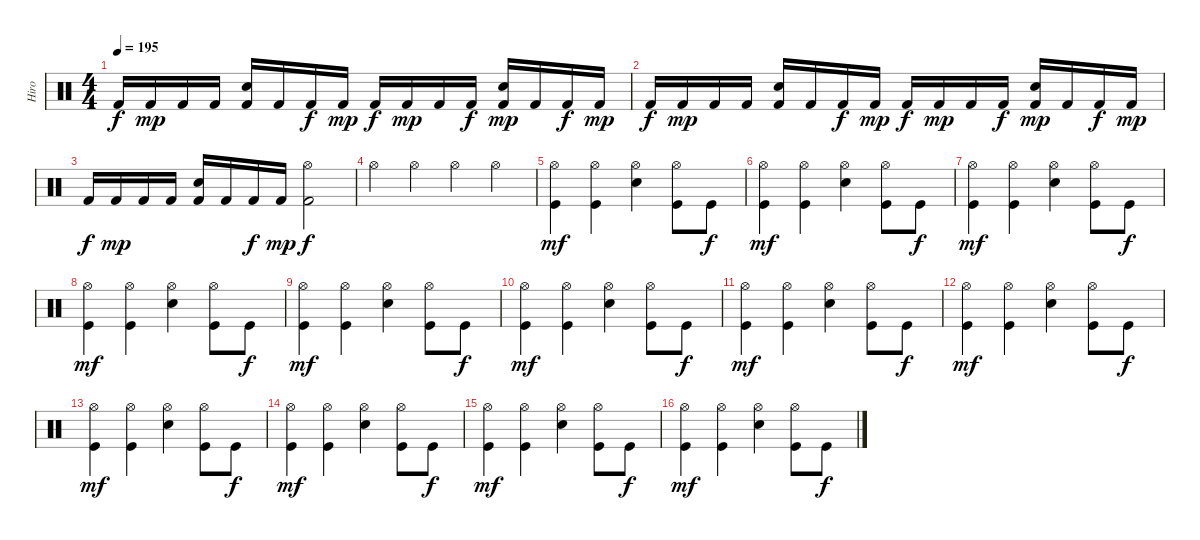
\track ("Hiro" "Hiro") {instrument percussion}
\staff {score}
\articulation defaults
\ts (4 4)
\tempo 195
\clef neutral
\ks c "Kick (hit) 2".16{dy f} "Kick (hit) 2".16{dy mp} "Kick (hit) 2".16 "Kick (hit) 2".16
("Snare (hit) 2" "Kick (hit) 2").16 "Kick (hit) 2".16 "Kick (hit) 2".16{dy f} "Kick (hit) 2".16{dy mp} "Kick (hit) 2".16{dy f} "Kick (hit) 2".16{dy mp} "Kick (hit) 2".16 "Kick (hit) 2".16{dy f} ("Snare (hit) 2" "Kick (hit) 2").16{dy mp} "Kick (hit) 2".16 "Kick (hit) 2".16{dy f} "Kick (hit) 2".16{dy mp} |
"Kick (hit) 2".16{dy f} "Kick (hit) 2".16{dy mp} "Kick (hit) 2".16 "Kick (hit) 2".16 ("Snare (hit) 2" "Kick (hit) 2").16 "Kick (hit) 2".16 "Kick (hit) 2".16{dy f} "Kick (hit) 2".16{dy mp} "Kick (hit) 2".16{dy f} "Kick (hit) 2".16{dy mp} "Kick (hit) 2".16 "Kick (hit) 2".16{dy f} ("Snare (hit) 2" "Kick (hit) 2").16{dy mp} "Kick (hit) 2".16 "Kick (hit) 2".16{dy f} "Kick (hit) 2".16{dy mp} |
"Kick (hit) 2".16{dy f} "Kick (hit) 2".16{dy mp} "Kick (hit) 2".16 "Kick (hit) 2".16 ("Snare (hit) 2" "Kick (hit) 2").16 "Kick (hit) 2".16 "Kick (hit) 2".16{dy f} "Kick (hit) 2".16{dy mp} ("Hi-Hat (open)" "Kick (hit) 2").2{dy f} |
"Hi-Hat (open)".4 "Hi-Hat (open)".4 "Hi-Hat (open)".4 "Hi-Hat (open)".4 |
("Hi-Hat (open)" "Kick (hit)").4{dy mf} ("Hi-Hat (open)" "Kick (hit)").4 ("Hi-Hat (open)" "Snare (hit) 2").4 ("Hi-Hat (open)" "Kick (hit)").8 "Kick (hit)".8{dy f} |
("Hi-Hat (open)" "Kick (hit)").4{dy mf} ("Hi-Hat (open)" "Kick (hit)").4 ("Snare (hit) 2" "Hi-Hat (open)").4 ("Hi-Hat (open)" "Kick (hit)").8 "Kick (hit)".8{dy f} |
("Hi-Hat (open)" "Kick (hit)").4{dy mf} ("Hi-Hat (open)" "Kick (hit)").4 ("Hi-Hat (open)" "Snare (hit) 2").4 ("Hi-Hat (open)" "Kick (hit)").8 "Kick (hit)".8{dy f} |
("Hi-Hat (open)" "Kick (hit)").4{dy mf} ("Hi-Hat (open)" "Kick (hit)").4 ("Snare (hit) 2" "Hi-Hat (open)").4 ("Hi-Hat (open)" "Kick (hit)").8 "Kick (hit)".8{dy f} |
("Hi-Hat (open)" "Kick (hit)").4{dy mf} ("Hi-Hat (open)" "Kick (hit)").4 ("Hi-Hat (open)" "Snare (hit) 2").4 ("Hi-Hat (open)" "Kick (hit)").8 "Kick (hit)".8{dy f} |
("Hi-Hat (open)" "Kick (hit)").4{dy mf} ("Hi-Hat (open)" "Kick (hit)").4 ("Snare (hit) 2" "Hi-Hat (open)").4 ("Hi-Hat (open)" "Kick (hit)").8 "Kick (hit)".8{dy f} |
("Hi-Hat (open)" "Kick (hit)").4{dy mf} ("Hi-Hat (open)" "Kick (hit)").4 ("Hi-Hat (open)" "Snare (hit) 2").4 ("Hi-Hat (open)" "Kick (hit)").8 "Kick (hit)".8{dy f} |
("Hi-Hat (open)" "Kick (hit)").4{dy mf} ("Hi-Hat (open)" "Kick (hit)").4 ("Snare (hit) 2" "Hi-Hat (open)").4 ("Hi-Hat (open)" "Kick (hit)").8 "Kick (hit)".8{dy f} |
("Hi-Hat (open)" "Kick (hit)").4{dy mf} ("Hi-Hat (open)" "Kick (hit)").4 ("Hi-Hat (open)" "Snare (hit) 2").4 ("Hi-Hat (open)" "Kick (hit)").8 "Kick (hit)".8{dy f} |
("Hi-Hat (open)" "Kick (hit)").4{dy mf} ("Hi-Hat (open)" "Kick (hit)").4 ("Snare (hit) 2" "Hi-Hat (open)").4 ("Hi-Hat (open)" "Kick (hit)").8 "Kick (hit)".8{dy f} |
("Hi-Hat (open)" "Kick (hit)").4{dy mf} ("Hi-Hat (open)" "Kick (hit)").4 ("Hi-Hat (open)" "Snare (hit) 2").4 ("Hi-Hat (open)" "Kick (hit)").8 "Kick (hit)".8{dy f} |
("Hi-Hat (open)" "Kick (hit)").4{dy mf} ("Hi-Hat (open)" "Kick (hit)").4 ("Snare (hit) 2" "Hi-Hat (open)").4 ("Hi-Hat (open)" "Kick (hit)").8 "Kick (hit)".8{dy f}
